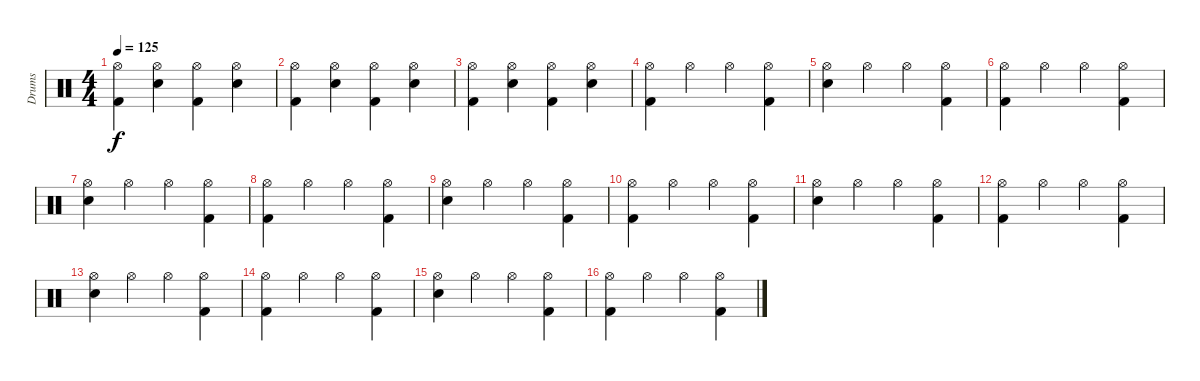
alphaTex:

\track ("Drums" "Drums") {instrument percussion}
\staff {score}
\articulation defaults
\ts (4 4)
\tempo 125
\clef neutral
\ks c
("Hi-Hat (open)" "Kick (hit) 2").4{dy f} ("Hi-Hat (open)" "Snare (hit) 2").4 ("Hi-Hat (open)" "Kick (hit) 2").4 ("Hi-Hat (open)" "Snare (hit) 2").4 |
("Hi-Hat (open)" "Kick (hit) 2").4 ("Hi-Hat (open)" "Snare (hit) 2").4 ("Hi-Hat (open)" "Kick (hit) 2").4 ("Hi-Hat (open)" "Snare (hit) 2").4 |
("Hi-Hat (open)" "Kick (hit) 2").4 ("Hi-Hat (open)" "Snare (hit) 2").4 ("Hi-Hat (open)" "Kick (hit) 2").4 ("Hi-Hat (open)" "Snare (hit) 2").4 |
("Hi-Hat (open)" "Kick (hit) 2").4 "Hi-Hat (open)".4 "Hi-Hat (open)".4 ("Hi-Hat (open)" "Kick (hit) 2").4 |
("Hi-Hat (open)" "Snare (hit) 2").4 "Hi-Hat (open)".4 "Hi-Hat (open)".4 ("Hi-Hat (open)" "Kick (hit) 2").4 |
("Hi-Hat (open)" "Kick (hit) 2").4 "Hi-Hat (open)".4 "Hi-Hat (open)".4 ("Hi-Hat (open)" "Kick (hit) 2").4 |
("Hi-Hat (open)" "Snare (hit) 2").4 "Hi-Hat (open)".4 "Hi-Hat (open)".4 ("Hi-Hat (open)" "Kick (hit) 2").4 |
("Hi-Hat (open)" "Kick (hit) 2").4 "Hi-Hat (open)".4 "Hi-Hat (open)".4 ("Hi-Hat (open)" "Kick (hit) 2").4 |
("Hi-Hat (open)" "Snare (hit) 2").4 "Hi-Hat (open)".4 "Hi-Hat (open)".4 ("Hi-Hat (open)" "Kick (hit) 2").4 |
("Hi-Hat (open)" "Kick (hit) 2").4 "Hi-Hat (open)".4 "Hi-Hat (open)".4 ("Hi-Hat (open)" "Kick (hit) 2").4 |
("Hi-Hat (open)" "Snare (hit) 2").4 "Hi-Hat (open)".4 "Hi-Hat (open)".4 ("Hi-Hat (open)" "Kick (hit) 2").4 |
("Hi-Hat (open)" "Kick (hit) 2").4 "Hi-Hat (open)".4 "Hi-Hat (open)".4 ("Hi-Hat (open)" "Kick (hit) 2").4 |
("Hi-Hat (open)" "Snare (hit) 2").4 "Hi-Hat (open)".4 "Hi-Hat (open)".4 ("Hi-Hat (open)" "Kick (hit) 2").4 |
("Hi-Hat (open)" "Kick (hit) 2").4 "Hi-Hat (open)".4 "Hi-Hat (open)".4 ("Hi-Hat (open)" "Kick (hit) 2").4 |
("Hi-Hat (open)" "Snare (hit) 2").4 "Hi-Hat (open)".4 "Hi-Hat (open)".4 ("Hi-Hat (open)" "Kick (hit) 2").4 |
("Hi-Hat (open)" "Kick (hit) 2").4 "Hi-Hat (open)".4 "Hi-Hat (open)".4 ("Hi-Hat (open)" "Kick (hit) 2").4
